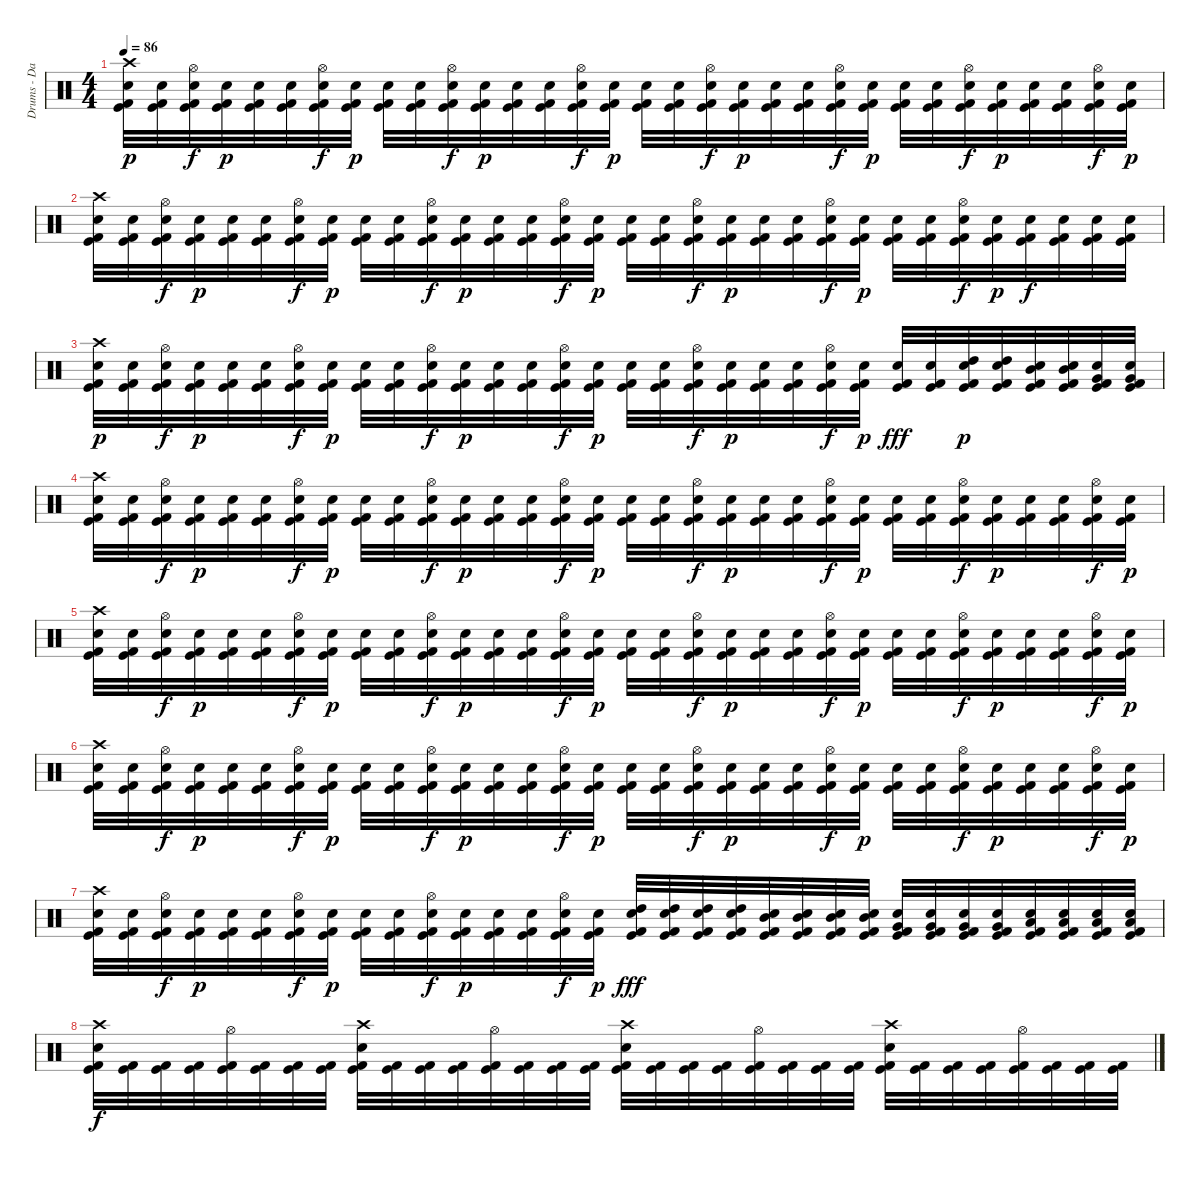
\track ("Drums - Daniel Zimmermann" "Drums - Da") {instrument percussion}
\staff {score}
\articulation defaults
\ts (4 4)
\tempo 86
\clef neutral
\ks c
("Kick (hit)" "Kick (hit) 2" "Electric Snare (hit)" "Crash high (hit)").32{dy p} ("Kick (hit)" "Kick (hit) 2" "Electric Snare (hit)").32 ("Kick (hit)" "Kick (hit) 2" "Electric Snare (hit)" "Hi-Hat (open)").32{dy f} ("Kick (hit)" "Kick (hit) 2" "Electric Snare (hit)").32{dy p} ("Kick (hit)" "Kick (hit) 2" "Electric Snare (hit)").32 ("Kick (hit)" "Kick (hit) 2" "Electric Snare (hit)").32 ("Kick (hit)" "Kick (hit) 2" "Electric Snare (hit)" "Hi-Hat (open)").32{dy f} ("Kick (hit)" "Kick (hit) 2" "Electric Snare (hit)").32{dy p} ("Kick (hit)" "Kick (hit) 2" "Electric Snare (hit)").32 ("Kick (hit)" "Kick (hit) 2" "Electric Snare (hit)").32 ("Kick (hit)" "Kick (hit) 2" "Electric Snare (hit)" "Hi-Hat (open)").32{dy f} ("Kick (hit)" "Kick (hit) 2" "Electric Snare (hit)").32{dy p} ("Kick (hit)" "Kick (hit) 2" "Electric Snare (hit)").32 ("Kick (hit)" "Kick (hit) 2" "Electric Snare (hit)").32 ("Kick (hit)" "Kick (hit) 2" "Electric Snare (hit)" "Hi-Hat (open)").32{dy f} ("Kick (hit)" "Kick (hit) 2" "Electric Snare (hit)").32{dy p} ("Kick (hit)" "Kick (hit) 2" "Electric Snare (hit)").32 ("Kick (hit)" "Kick (hit) 2" "Electric Snare (hit)").32 ("Kick (hit)" "Kick (hit) 2" "Electric Snare (hit)" "Hi-Hat (open)").32{dy f} ("Kick (hit)" "Kick (hit) 2" "Electric Snare (hit)").32{dy p} ("Kick (hit)" "Kick (hit) 2" "Electric Snare (hit)").32 ("Kick (hit)" "Kick (hit) 2" "Electric Snare (hit)").32 ("Kick (hit)" "Kick (hit) 2" "Electric Snare (hit)" "Hi-Hat (open)").32{dy f} ("Kick (hit)" "Kick (hit) 2" "Electric Snare (hit)").32{dy p} ("Kick (hit)" "Kick (hit) 2" "Electric Snare (hit)").32 ("Kick (hit)" "Kick (hit) 2" "Electric Snare (hit)").32 ("Kick (hit)" "Kick (hit) 2" "Electric Snare (hit)" "Hi-Hat (open)").32{dy f} ("Kick (hit)" "Kick (hit) 2" "Electric Snare (hit)").32{dy p} ("Kick (hit)" "Kick (hit) 2" "Electric Snare (hit)").32 ("Kick (hit)" "Kick (hit) 2" "Electric Snare (hit)").32 ("Kick (hit)" "Kick (hit) 2" "Electric Snare (hit)" "Hi-Hat (open)").32{dy f} ("Kick (hit)" "Kick (hit) 2" "Electric Snare (hit)").32{dy p} |
("Kick (hit)" "Kick (hit) 2" "Electric Snare (hit)" "Crash high (hit)").32 ("Kick (hit)" "Kick (hit) 2" "Electric Snare (hit)").32 ("Kick (hit)" "Kick (hit) 2" "Electric Snare (hit)" "Hi-Hat (open)").32{dy f} ("Kick (hit)" "Kick (hit) 2" "Electric Snare (hit)").32{dy p} ("Kick (hit)" "Kick (hit) 2" "Electric Snare (hit)").32 ("Kick (hit)" "Kick (hit) 2" "Electric Snare (hit)").32 ("Kick (hit)" "Kick (hit) 2" "Electric Snare (hit)" "Hi-Hat (open)").32{dy f} ("Kick (hit)" "Kick (hit) 2" "Electric Snare (hit)").32{dy p} ("Kick (hit)" "Kick (hit) 2" "Electric Snare (hit)").32 ("Kick (hit)" "Kick (hit) 2" "Electric Snare (hit)").32 ("Kick (hit)" "Kick (hit) 2" "Electric Snare (hit)" "Hi-Hat (open)").32{dy f} ("Kick (hit)" "Kick (hit) 2" "Electric Snare (hit)").32{dy p} ("Kick (hit)" "Kick (hit) 2" "Electric Snare (hit)").32 ("Kick (hit)" "Kick (hit) 2" "Electric Snare (hit)").32 ("Kick (hit)" "Kick (hit) 2" "Electric Snare (hit)" "Hi-Hat (open)").32{dy f} ("Kick (hit)" "Kick (hit) 2" "Electric Snare (hit)").32{dy p} ("Kick (hit)" "Kick (hit) 2" "Electric Snare (hit)").32 ("Kick (hit)" "Kick (hit) 2" "Electric Snare (hit)").32 ("Kick (hit)" "Kick (hit) 2" "Electric Snare (hit)" "Hi-Hat (open)").32{dy f} ("Kick (hit)" "Kick (hit) 2" "Electric Snare (hit)").32{dy p} ("Kick (hit)" "Kick (hit) 2" "Electric Snare (hit)").32 ("Kick (hit)" "Kick (hit) 2" "Electric Snare (hit)").32 ("Kick (hit)" "Kick (hit) 2" "Electric Snare (hit)" "Hi-Hat (open)").32{dy f} ("Kick (hit)" "Kick (hit) 2" "Electric Snare (hit)").32{dy p} ("Kick (hit)" "Kick (hit) 2" "Electric Snare (hit)").32 ("Kick (hit)" "Kick (hit) 2" "Electric Snare (hit)").32 ("Kick (hit)" "Kick (hit) 2" "Electric Snare (hit)" "Hi-Hat (open)").32{dy f} ("Kick (hit)" "Kick (hit) 2" "Electric Snare (hit)").32{dy p} ("Kick (hit)" "Kick (hit) 2" "Electric Snare (hit)").32{dy f} ("Kick (hit)" "Kick (hit) 2" "Electric Snare (hit)").32 ("Kick (hit)" "Kick (hit) 2" "Electric Snare (hit)").32 ("Kick (hit)" "Kick (hit) 2" "Electric Snare (hit)").32 |
("Kick (hit)" "Kick (hit) 2" "Electric Snare (hit)" "Crash high (hit)").32{dy p} ("Kick (hit)" "Kick (hit) 2" "Electric Snare (hit)").32 ("Kick (hit)" "Kick (hit) 2" "Electric Snare (hit)" "Hi-Hat (open)").32{dy f} ("Kick (hit)" "Kick (hit) 2" "Electric Snare (hit)").32{dy p} ("Kick (hit)" "Kick (hit) 2" "Electric Snare (hit)").32 ("Kick (hit)" "Kick (hit) 2" "Electric Snare (hit)").32 ("Kick (hit)" "Kick (hit) 2" "Electric Snare (hit)" "Hi-Hat (open)").32{dy f} ("Kick (hit)" "Kick (hit) 2" "Electric Snare (hit)").32{dy p} ("Kick (hit)" "Kick (hit) 2" "Electric Snare (hit)").32 ("Kick (hit)" "Kick (hit) 2" "Electric Snare (hit)").32 ("Kick (hit)" "Kick (hit) 2" "Electric Snare (hit)" "Hi-Hat (open)").32{dy f} ("Kick (hit)" "Kick (hit) 2" "Electric Snare (hit)").32{dy p} ("Kick (hit)" "Kick (hit) 2" "Electric Snare (hit)").32 ("Kick (hit)" "Kick (hit) 2" "Electric Snare (hit)").32 ("Kick (hit)" "Kick (hit) 2" "Electric Snare (hit)" "Hi-Hat (open)").32{dy f} ("Kick (hit)" "Kick (hit) 2" "Electric Snare (hit)").32{dy p} ("Kick (hit)" "Kick (hit) 2" "Electric Snare (hit)").32 ("Kick (hit)" "Kick (hit) 2" "Electric Snare (hit)").32 ("Kick (hit)" "Kick (hit) 2" "Electric Snare (hit)" "Hi-Hat (open)").32{dy f} ("Kick (hit)" "Kick (hit) 2" "Electric Snare (hit)").32{dy p} ("Kick (hit)" "Kick (hit) 2" "Electric Snare (hit)").32 ("Kick (hit)" "Kick (hit) 2" "Electric Snare (hit)").32 ("Kick (hit)" "Kick (hit) 2" "Electric Snare (hit)" "Hi-Hat (open)").32{dy f} ("Kick (hit)" "Kick (hit) 2" "Electric Snare (hit)").32{dy p} ("Kick (hit)" "Kick (hit) 2" "Electric Snare (hit)").32{dy fff} ("Kick (hit)" "Kick (hit) 2" "Electric Snare (hit)").32 ("Kick (hit)" "Kick (hit) 2" "Electric Snare (hit)" "High Tom (hit)").32{dy p} ("Kick (hit)" "Kick (hit) 2" "Electric Snare (hit)" "High Tom (hit)").32 ("Kick (hit)" "Kick (hit) 2" "Electric Snare (hit)" "Mid Tom (hit)").32 ("Kick (hit)" "Kick (hit) 2" "Electric Snare (hit)" "Mid Tom (hit)").32 ("Kick (hit)" "Kick (hit) 2" "Electric Snare (hit)" "Very Low Tom (hit)").32 ("Kick (hit)" "Kick (hit) 2" "Electric Snare (hit)" "Very Low Tom (hit)").32 |
("Kick (hit)" "Kick (hit) 2" "Electric Snare (hit)" "Crash high (hit)").32 ("Kick (hit)" "Kick (hit) 2" "Electric Snare (hit)").32 ("Kick (hit)" "Kick (hit) 2" "Electric Snare (hit)" "Hi-Hat (open)").32{dy f} ("Kick (hit)" "Kick (hit) 2" "Electric Snare (hit)").32{dy p} ("Kick (hit)" "Kick (hit) 2" "Electric Snare (hit)").32 ("Kick (hit)" "Kick (hit) 2" "Electric Snare (hit)").32 ("Kick (hit)" "Kick (hit) 2" "Electric Snare (hit)" "Hi-Hat (open)").32{dy f} ("Kick (hit)" "Kick (hit) 2" "Electric Snare (hit)").32{dy p} ("Kick (hit)" "Kick (hit) 2" "Electric Snare (hit)").32 ("Kick (hit)" "Kick (hit) 2" "Electric Snare (hit)").32 ("Kick (hit)" "Kick (hit) 2" "Electric Snare (hit)" "Hi-Hat (open)").32{dy f} ("Kick (hit)" "Kick (hit) 2" "Electric Snare (hit)").32{dy p} ("Kick (hit)" "Kick (hit) 2" "Electric Snare (hit)").32 ("Kick (hit)" "Kick (hit) 2" "Electric Snare (hit)").32 ("Kick (hit)" "Kick (hit) 2" "Electric Snare (hit)" "Hi-Hat (open)").32{dy f} ("Kick (hit)" "Kick (hit) 2" "Electric Snare (hit)").32{dy p} ("Kick (hit)" "Kick (hit) 2" "Electric Snare (hit)").32 ("Kick (hit)" "Kick (hit) 2" "Electric Snare (hit)").32 ("Kick (hit)" "Kick (hit) 2" "Electric Snare (hit)" "Hi-Hat (open)").32{dy f} ("Kick (hit)" "Kick (hit) 2" "Electric Snare (hit)").32{dy p} ("Kick (hit)" "Kick (hit) 2" "Electric Snare (hit)").32 ("Kick (hit)" "Kick (hit) 2" "Electric Snare (hit)").32 ("Kick (hit)" "Kick (hit) 2" "Electric Snare (hit)" "Hi-Hat (open)").32{dy f} ("Kick (hit)" "Kick (hit) 2" "Electric Snare (hit)").32{dy p} ("Kick (hit)" "Kick (hit) 2" "Electric Snare (hit)").32 ("Kick (hit)" "Kick (hit) 2" "Electric Snare (hit)").32 ("Kick (hit)" "Kick (hit) 2" "Electric Snare (hit)" "Hi-Hat (open)").32{dy f} ("Kick (hit)" "Kick (hit) 2" "Electric Snare (hit)").32{dy p} ("Kick (hit)" "Kick (hit) 2" "Electric Snare (hit)").32 ("Kick (hit)" "Kick (hit) 2" "Electric Snare (hit)").32 ("Kick (hit)" "Kick (hit) 2" "Electric Snare (hit)" "Hi-Hat (open)").32{dy f} ("Kick (hit)" "Kick (hit) 2" "Electric Snare (hit)").32{dy p} |
("Kick (hit)" "Kick (hit) 2" "Electric Snare (hit)" "Crash high (hit)").32 ("Kick (hit)" "Kick (hit) 2" "Electric Snare (hit)").32 ("Kick (hit)" "Kick (hit) 2" "Electric Snare (hit)" "Hi-Hat (open)").32{dy f} ("Kick (hit)" "Kick (hit) 2" "Electric Snare (hit)").32{dy p} ("Kick (hit)" "Kick (hit) 2" "Electric Snare (hit)").32 ("Kick (hit)" "Kick (hit) 2" "Electric Snare (hit)").32 ("Kick (hit)" "Kick (hit) 2" "Electric Snare (hit)" "Hi-Hat (open)").32{dy f} ("Kick (hit)" "Kick (hit) 2" "Electric Snare (hit)").32{dy p} ("Kick (hit)" "Kick (hit) 2" "Electric Snare (hit)").32 ("Kick (hit)" "Kick (hit) 2" "Electric Snare (hit)").32 ("Kick (hit)" "Kick (hit) 2" "Electric Snare (hit)" "Hi-Hat (open)").32{dy f} ("Kick (hit)" "Kick (hit) 2" "Electric Snare (hit)").32{dy p} ("Kick (hit)" "Kick (hit) 2" "Electric Snare (hit)").32 ("Kick (hit)" "Kick (hit) 2" "Electric Snare (hit)").32 ("Kick (hit)" "Kick (hit) 2" "Electric Snare (hit)" "Hi-Hat (open)").32{dy f} ("Kick (hit)" "Kick (hit) 2" "Electric Snare (hit)").32{dy p} ("Kick (hit)" "Kick (hit) 2" "Electric Snare (hit)").32 ("Kick (hit)" "Kick (hit) 2" "Electric Snare (hit)").32 ("Kick (hit)" "Kick (hit) 2" "Electric Snare (hit)" "Hi-Hat (open)").32{dy f} ("Kick (hit)" "Kick (hit) 2" "Electric Snare (hit)").32{dy p} ("Kick (hit)" "Kick (hit) 2" "Electric Snare (hit)").32 ("Kick (hit)" "Kick (hit) 2" "Electric Snare (hit)").32 ("Kick (hit)" "Kick (hit) 2" "Electric Snare (hit)" "Hi-Hat (open)").32{dy f} ("Kick (hit)" "Kick (hit) 2" "Electric Snare (hit)").32{dy p} ("Kick (hit)" "Kick (hit) 2" "Electric Snare (hit)").32 ("Kick (hit)" "Kick (hit) 2" "Electric Snare (hit)").32 ("Kick (hit)" "Kick (hit) 2" "Electric Snare (hit)" "Hi-Hat (open)").32{dy f} ("Kick (hit)" "Kick (hit) 2" "Electric Snare (hit)").32{dy p} ("Kick (hit)" "Kick (hit) 2" "Electric Snare (hit)").32 ("Kick (hit)" "Kick (hit) 2" "Electric Snare (hit)").32 ("Kick (hit)" "Kick (hit) 2" "Electric Snare (hit)" "Hi-Hat (open)").32{dy f} ("Kick (hit)" "Kick (hit) 2" "Electric Snare (hit)").32{dy p} |
("Kick (hit)" "Kick (hit) 2" "Electric Snare (hit)" "Crash high (hit)").32 ("Kick (hit)" "Kick (hit) 2" "Electric Snare (hit)").32 ("Kick (hit)" "Kick (hit) 2" "Electric Snare (hit)" "Hi-Hat (open)").32{dy f} ("Kick (hit)" "Kick (hit) 2" "Electric Snare (hit)").32{dy p} ("Kick (hit)" "Kick (hit) 2" "Electric Snare (hit)").32 ("Kick (hit)" "Kick (hit) 2" "Electric Snare (hit)").32 ("Kick (hit)" "Kick (hit) 2" "Electric Snare (hit)" "Hi-Hat (open)").32{dy f} ("Kick (hit)" "Kick (hit) 2" "Electric Snare (hit)").32{dy p} ("Kick (hit)" "Kick (hit) 2" "Electric Snare (hit)").32 ("Kick (hit)" "Kick (hit) 2" "Electric Snare (hit)").32 ("Kick (hit)" "Kick (hit) 2" "Electric Snare (hit)" "Hi-Hat (open)").32{dy f} ("Kick (hit)" "Kick (hit) 2" "Electric Snare (hit)").32{dy p} ("Kick (hit)" "Kick (hit) 2" "Electric Snare (hit)").32 ("Kick (hit)" "Kick (hit) 2" "Electric Snare (hit)").32 ("Kick (hit)" "Kick (hit) 2" "Electric Snare (hit)" "Hi-Hat (open)").32{dy f} ("Kick (hit)" "Kick (hit) 2" "Electric Snare (hit)").32{dy p} ("Kick (hit)" "Kick (hit) 2" "Electric Snare (hit)").32 ("Kick (hit)" "Kick (hit) 2" "Electric Snare (hit)").32 ("Kick (hit)" "Kick (hit) 2" "Electric Snare (hit)" "Hi-Hat (open)").32{dy f} ("Kick (hit)" "Kick (hit) 2" "Electric Snare (hit)").32{dy p} ("Kick (hit)" "Kick (hit) 2" "Electric Snare (hit)").32 ("Kick (hit)" "Kick (hit) 2" "Electric Snare (hit)").32 ("Kick (hit)" "Kick (hit) 2" "Electric Snare (hit)" "Hi-Hat (open)").32{dy f} ("Kick (hit)" "Kick (hit) 2" "Electric Snare (hit)").32{dy p} ("Kick (hit)" "Kick (hit) 2" "Electric Snare (hit)").32 ("Kick (hit)" "Kick (hit) 2" "Electric Snare (hit)").32 ("Kick (hit)" "Kick (hit) 2" "Electric Snare (hit)" "Hi-Hat (open)").32{dy f} ("Kick (hit)" "Kick (hit) 2" "Electric Snare (hit)").32{dy p} ("Kick (hit)" "Kick (hit) 2" "Electric Snare (hit)").32 ("Kick (hit)" "Kick (hit) 2" "Electric Snare (hit)").32 ("Kick (hit)" "Kick (hit) 2" "Electric Snare (hit)" "Hi-Hat (open)").32{dy f} ("Kick (hit)" "Kick (hit) 2" "Electric Snare (hit)").32{dy p} |
("Kick (hit)" "Kick (hit) 2" "Electric Snare (hit)" "Crash high (hit)").32 ("Kick (hit)" "Kick (hit) 2" "Electric Snare (hit)").32 ("Kick (hit)" "Kick (hit) 2" "Electric Snare (hit)" "Hi-Hat (open)").32{dy f} ("Kick (hit)" "Kick (hit) 2" "Electric Snare (hit)").32{dy p} ("Kick (hit)" "Kick (hit) 2" "Electric Snare (hit)").32 ("Kick (hit)" "Kick (hit) 2" "Electric Snare (hit)").32 ("Kick (hit)" "Kick (hit) 2" "Electric Snare (hit)" "Hi-Hat (open)").32{dy f} ("Kick (hit)" "Kick (hit) 2" "Electric Snare (hit)").32{dy p} ("Kick (hit)" "Kick (hit) 2" "Electric Snare (hit)").32 ("Kick (hit)" "Kick (hit) 2" "Electric Snare (hit)").32 ("Kick (hit)" "Kick (hit) 2" "Electric Snare (hit)" "Hi-Hat (open)").32{dy f} ("Kick (hit)" "Kick (hit) 2" "Electric Snare (hit)").32{dy p} ("Kick (hit)" "Kick (hit) 2" "Electric Snare (hit)").32 ("Kick (hit)" "Kick (hit) 2" "Electric Snare (hit)").32 ("Kick (hit)" "Kick (hit) 2" "Electric Snare (hit)" "Hi-Hat (open)").32{dy f} ("Kick (hit)" "Kick (hit) 2" "Electric Snare (hit)").32{dy p} ("Kick (hit)" "Kick (hit) 2" "Electric Snare (hit)" "High Tom (hit)").32{dy fff} ("Kick (hit)" "Kick (hit) 2" "Electric Snare (hit)" "High Tom (hit)").32 ("Kick (hit)" "Kick (hit) 2" "Electric Snare (hit)" "High Tom (hit)").32 ("Kick (hit)" "Kick (hit) 2" "Electric Snare (hit)" "High Tom (hit)").32 ("Kick (hit)" "Kick (hit) 2" "Electric Snare (hit)" "Mid Tom (hit)").32 ("Kick (hit)" "Kick (hit) 2" "Electric Snare (hit)" "Mid Tom (hit)").32 ("Kick (hit)" "Kick (hit) 2" "Electric Snare (hit)" "Mid Tom (hit)").32 ("Kick (hit)" "Kick (hit) 2" "Electric Snare (hit)" "Mid Tom (hit)").32 ("Kick (hit)" "Kick (hit) 2" "Electric Snare (hit)" "Very Low Tom (hit)").32 ("Kick (hit)" "Kick (hit) 2" "Electric Snare (hit)" "Very Low Tom (hit)").32 ("Kick (hit)" "Kick (hit) 2" "Electric Snare (hit)" "Very Low Tom (hit)").32 ("Kick (hit)" "Kick (hit) 2" "Electric Snare (hit)" "Very Low Tom (hit)").32 ("Kick (hit)" "Kick (hit) 2" "Electric Snare (hit)" "Low Floor Tom (hit)").32 ("Kick (hit)" "Kick (hit) 2" "Electric Snare (hit)" "Low Floor Tom (hit)").32 ("Kick (hit)" "Kick (hit) 2" "Electric Snare (hit)" "Low Floor Tom (hit)").32 ("Kick (hit)" "Kick (hit) 2" "Electric Snare (hit)" "Low Floor Tom (hit)").32 |
("Kick (hit)" "Kick (hit) 2" "Electric Snare (hit)" "Crash high (hit)").32{dy f} ("Kick (hit)" "Kick (hit) 2").32 ("Kick (hit)" "Kick (hit) 2").32 ("Kick (hit)" "Kick (hit) 2").32 ("Kick (hit)" "Kick (hit) 2" "Hi-Hat (open)").32 ("Kick (hit)" "Kick (hit) 2").32 ("Kick (hit)" "Kick (hit) 2").32 ("Kick (hit)" "Kick (hit) 2").32 ("Kick (hit)" "Kick (hit) 2" "Electric Snare (hit)" "Crash high (hit)").32 ("Kick (hit)" "Kick (hit) 2").32 ("Kick (hit)" "Kick (hit) 2").32 ("Kick (hit)" "Kick (hit) 2").32 ("Kick (hit)" "Kick (hit) 2" "Hi-Hat (open)").32 ("Kick (hit)" "Kick (hit) 2").32 ("Kick (hit)" "Kick (hit) 2").32 ("Kick (hit)" "Kick (hit) 2").32 ("Kick (hit)" "Kick (hit) 2" "Electric Snare (hit)" "Crash high (hit)").32 ("Kick (hit)" "Kick (hit) 2").32 ("Kick (hit)" "Kick (hit) 2").32 ("Kick (hit)" "Kick (hit) 2").32 ("Kick (hit)" "Kick (hit) 2" "Hi-Hat (open)").32 ("Kick (hit)" "Kick (hit) 2").32 ("Kick (hit)" "Kick (hit) 2").32 ("Kick (hit)" "Kick (hit) 2").32 ("Kick (hit)" "Kick (hit) 2" "Electric Snare (hit)" "Crash high (hit)").32 ("Kick (hit)" "Kick (hit) 2").32 ("Kick (hit)" "Kick (hit) 2").32 ("Kick (hit)" "Kick (hit) 2").32 ("Kick (hit)" "Kick (hit) 2" "Hi-Hat (open)").32 ("Kick (hit)" "Kick (hit) 2").32 ("Kick (hit)" "Kick (hit) 2").32 ("Kick (hit)" "Kick (hit) 2").32
